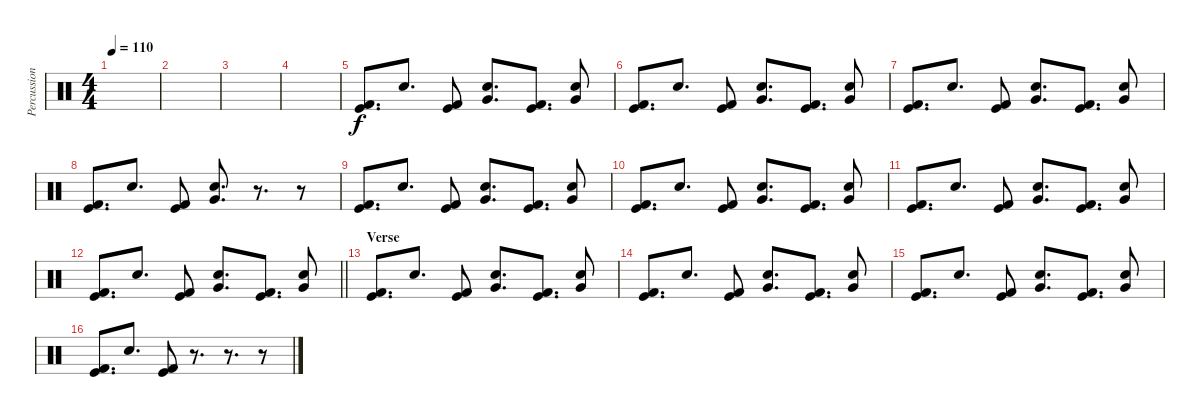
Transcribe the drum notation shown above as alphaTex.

\track ("Percussion" "Percussion") {instrument percussion}
\staff {score}
\articulation defaults
\ts (4 4)
\tempo 110
\clef neutral
\ks c
|
|
|
|
("Kick (hit) 2" "Kick (hit)").8{d} "Snare (hit) 2".8{d} ("Kick (hit) 2" "Kick (hit)").8 ("Very Low Tom (hit)" "Snare (hit) 2").8{d} ("Kick (hit) 2" "Kick (hit)").8{d} ("Very Low Tom (hit)" "Snare (hit) 2").8 |
("Kick (hit) 2" "Kick (hit)").8{d} "Snare (hit) 2".8{d} ("Kick (hit) 2" "Kick (hit)").8 ("Very Low Tom (hit)" "Snare (hit) 2").8{d} ("Kick (hit) 2" "Kick (hit)").8{d} ("Very Low Tom (hit)" "Snare (hit) 2").8 |
("Kick (hit) 2" "Kick (hit)").8{d} "Snare (hit) 2".8{d} ("Kick (hit) 2" "Kick (hit)").8 ("Very Low Tom (hit)" "Snare (hit) 2").8{d} ("Kick (hit) 2" "Kick (hit)").8{d} ("Very Low Tom (hit)" "Snare (hit) 2").8 |
("Kick (hit) 2" "Kick (hit)").8{d} "Snare (hit) 2".8{d} ("Kick (hit) 2" "Kick (hit)").8 ("Very Low Tom (hit)" "Snare (hit) 2").8{d} r.8{d} r.8 |
("Kick (hit) 2" "Kick (hit)").8{d} "Snare (hit) 2".8{d} ("Kick (hit) 2" "Kick (hit)").8 ("Very Low Tom (hit)" "Snare (hit) 2").8{d} ("Kick (hit) 2" "Kick (hit)").8{d} ("Very Low Tom (hit)" "Snare (hit) 2").8 |
("Kick (hit) 2" "Kick (hit)").8{d} "Snare (hit) 2".8{d} ("Kick (hit) 2" "Kick (hit)").8 ("Very Low Tom (hit)" "Snare (hit) 2").8{d} ("Kick (hit) 2" "Kick (hit)").8{d} ("Very Low Tom (hit)" "Snare (hit) 2").8 |
("Kick (hit) 2" "Kick (hit)").8{d} "Snare (hit) 2".8{d} ("Kick (hit) 2" "Kick (hit)").8 ("Very Low Tom (hit)" "Snare (hit) 2").8{d} ("Kick (hit) 2" "Kick (hit)").8{d} ("Very Low Tom (hit)" "Snare (hit) 2").8 |
\barLineRight lightlight
("Kick (hit) 2" "Kick (hit)").8{d} "Snare (hit) 2".8{d} ("Kick (hit) 2" "Kick (hit)").8 ("Very Low Tom (hit)" "Snare (hit) 2").8{d} ("Kick (hit) 2" "Kick (hit)").8{d} ("Very Low Tom (hit)" "Snare (hit) 2").8 |
\section ("" "Verse")
("Kick (hit) 2" "Kick (hit)").8{d} "Snare (hit) 2".8{d} ("Kick (hit) 2" "Kick (hit)").8 ("Very Low Tom (hit)" "Snare (hit) 2").8{d} ("Kick (hit) 2" "Kick (hit)").8{d} ("Very Low Tom (hit)" "Snare (hit) 2").8 |
("Kick (hit) 2" "Kick (hit)").8{d} "Snare (hit) 2".8{d} ("Kick (hit) 2" "Kick (hit)").8 ("Very Low Tom (hit)" "Snare (hit) 2").8{d} ("Kick (hit) 2" "Kick (hit)").8{d} ("Very Low Tom (hit)" "Snare (hit) 2").8 |
("Kick (hit) 2" "Kick (hit)").8{d} "Snare (hit) 2".8{d} ("Kick (hit) 2" "Kick (hit)").8 ("Very Low Tom (hit)" "Snare (hit) 2").8{d} ("Kick (hit) 2" "Kick (hit)").8{d} ("Very Low Tom (hit)" "Snare (hit) 2").8 |
("Kick (hit) 2" "Kick (hit)").8{d} "Snare (hit) 2".8{d} ("Kick (hit) 2" "Kick (hit)").8 r.8{d} r.8{d} r.8
